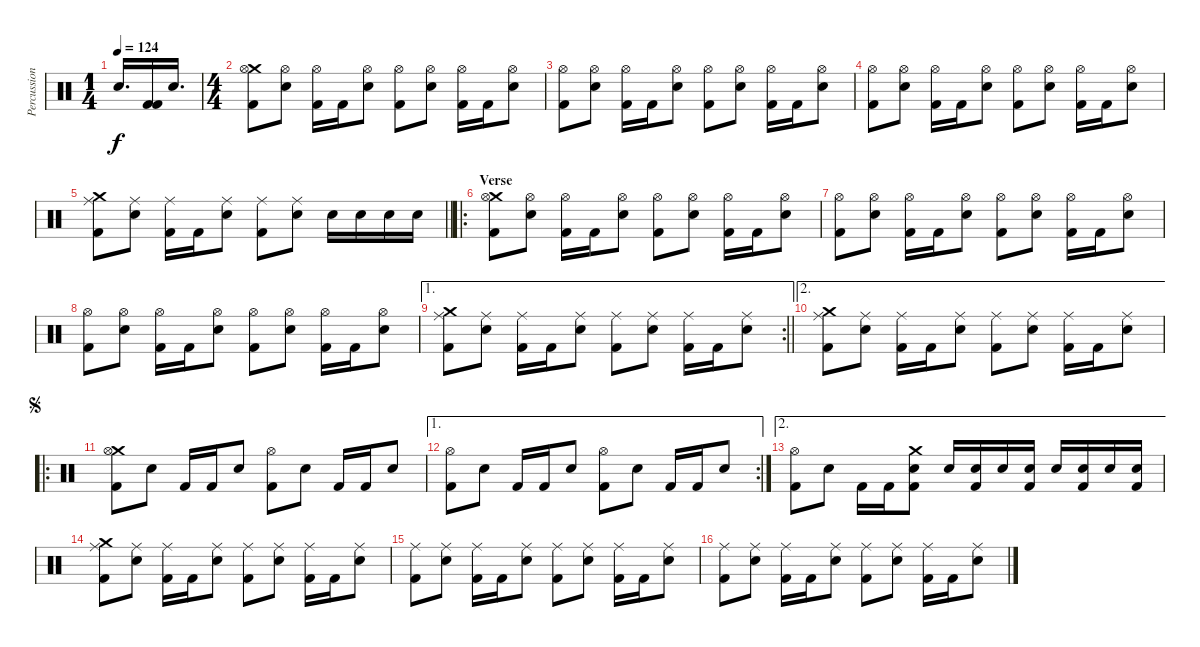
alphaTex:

\track ("Percussion" "Percussion") {instrument percussion}
\staff {score}
\articulation defaults
\ts (1 4)
\tempo 124
\clef neutral
\ks c "Electric Snare (hit)".16{d dy f}
("Kick (hit) 2" "Kick (hit) 2").16 "Electric Snare (hit)".16{d} |
\ts (4 4)
("Crash medium (hit)" "Hi-Hat (open)" "Kick (hit) 2").8 ("Hi-Hat (open)" "Electric Snare (hit)").8 ("Hi-Hat (open)" "Kick (hit) 2").16 "Kick (hit) 2".16 ("Hi-Hat (open)" "Electric Snare (hit)").8 ("Hi-Hat (open)" "Kick (hit) 2").8 ("Hi-Hat (open)" "Electric Snare (hit)").8 ("Hi-Hat (open)" "Kick (hit) 2").16 "Kick (hit) 2".16 ("Hi-Hat (open)" "Electric Snare (hit)").8 |
("Hi-Hat (open)" "Kick (hit) 2").8 ("Hi-Hat (open)" "Electric Snare (hit)").8 ("Hi-Hat (open)" "Kick (hit) 2").16 "Kick (hit) 2".16 ("Hi-Hat (open)" "Electric Snare (hit)").8 ("Hi-Hat (open)" "Kick (hit) 2").8 ("Hi-Hat (open)" "Electric Snare (hit)").8 ("Hi-Hat (open)" "Kick (hit) 2").16 "Kick (hit) 2".16 ("Hi-Hat (open)" "Electric Snare (hit)").8 |
("Hi-Hat (open)" "Kick (hit) 2").8 ("Hi-Hat (open)" "Electric Snare (hit)").8 ("Hi-Hat (open)" "Kick (hit) 2").16 "Kick (hit) 2".16 ("Hi-Hat (open)" "Electric Snare (hit)").8 ("Hi-Hat (open)" "Kick (hit) 2").8 ("Hi-Hat (open)" "Electric Snare (hit)").8 ("Hi-Hat (open)" "Kick (hit) 2").16 "Kick (hit) 2".16 ("Hi-Hat (open)" "Electric Snare (hit)").8 |
\barLineRight lightlight
("Crash medium (hit)" "Ride (middle)" "Kick (hit) 2").8 ("Ride (middle)" "Electric Snare (hit)").8 ("Ride (middle)" "Kick (hit) 2").16 "Kick (hit) 2".16 ("Ride (middle)" "Electric Snare (hit)").8 ("Ride (middle)" "Kick (hit) 2").8 ("Ride (middle)" "Electric Snare (hit)").8 "Electric Snare (hit)".16 "Electric Snare (hit)".16 "Electric Snare (hit)".16 "Electric Snare (hit)".16 |
\ro
\section ("" "Verse")
("Crash medium (hit)" "Hi-Hat (open)" "Kick (hit) 2").8 ("Hi-Hat (open)" "Electric Snare (hit)").8 ("Hi-Hat (open)" "Kick (hit) 2").16 "Kick (hit) 2".16 ("Hi-Hat (open)" "Electric Snare (hit)").8 ("Hi-Hat (open)" "Kick (hit) 2").8 ("Hi-Hat (open)" "Electric Snare (hit)").8 ("Hi-Hat (open)" "Kick (hit) 2").16 "Kick (hit) 2".16 ("Hi-Hat (open)" "Electric Snare (hit)").8 |
("Hi-Hat (open)" "Kick (hit) 2").8 ("Hi-Hat (open)" "Electric Snare (hit)").8 ("Hi-Hat (open)" "Kick (hit) 2").16 "Kick (hit) 2".16 ("Hi-Hat (open)" "Electric Snare (hit)").8 ("Hi-Hat (open)" "Kick (hit) 2").8 ("Hi-Hat (open)" "Electric Snare (hit)").8 ("Hi-Hat (open)" "Kick (hit) 2").16 "Kick (hit) 2".16 ("Hi-Hat (open)" "Electric Snare (hit)").8 |
("Hi-Hat (open)" "Kick (hit) 2").8 ("Hi-Hat (open)" "Electric Snare (hit)").8 ("Hi-Hat (open)" "Kick (hit) 2").16 "Kick (hit) 2".16 ("Hi-Hat (open)" "Electric Snare (hit)").8 ("Hi-Hat (open)" "Kick (hit) 2").8 ("Hi-Hat (open)" "Electric Snare (hit)").8 ("Hi-Hat (open)" "Kick (hit) 2").16 "Kick (hit) 2".16 ("Hi-Hat (open)" "Electric Snare (hit)").8 |
\ae 1
\rc 2
\barLineRight lightlight
("Crash medium (hit)" "Ride (middle)" "Kick (hit) 2").8 ("Ride (middle)" "Electric Snare (hit)").8 ("Ride (middle)" "Kick (hit) 2").16 "Kick (hit) 2".16 ("Ride (middle)" "Electric Snare (hit)").8 ("Ride (middle)" "Kick (hit) 2").8 ("Ride (middle)" "Electric Snare (hit)").8 ("Ride (middle)" "Kick (hit) 2").16 "Kick (hit) 2".16 ("Ride (middle)" "Electric Snare (hit)").8 |
\ae 2
("Crash medium (hit)" "Ride (middle)" "Kick (hit) 2").8 ("Ride (middle)" "Electric Snare (hit)").8 ("Ride (middle)" "Kick (hit) 2").16 "Kick (hit) 2".16 ("Ride (middle)" "Electric Snare (hit)").8 ("Ride (middle)" "Kick (hit) 2").8 ("Ride (middle)" "Electric Snare (hit)").8 ("Ride (middle)" "Kick (hit) 2").16 "Kick (hit) 2".16 ("Ride (middle)" "Electric Snare (hit)").8 |
\ro
\jump segno
("Crash medium (hit)" "Hi-Hat (open)" "Kick (hit) 2").8 "Electric Snare (hit)".8 "Kick (hit) 2".16 "Kick (hit) 2".16 "Electric Snare (hit)".8 ("Hi-Hat (open)" "Kick (hit) 2").8 "Electric Snare (hit)".8 "Kick (hit) 2".16 "Kick (hit) 2".16 "Electric Snare (hit)".8 |
\ae 1
\rc 2
("Hi-Hat (open)" "Kick (hit) 2").8 "Electric Snare (hit)".8 "Kick (hit) 2".16 "Kick (hit) 2".16 "Electric Snare (hit)".8 ("Hi-Hat (open)" "Kick (hit) 2").8 "Electric Snare (hit)".8 "Kick (hit) 2".16 "Kick (hit) 2".16 "Electric Snare (hit)".8 |
\ae 2
("Hi-Hat (open)" "Kick (hit) 2").8 "Electric Snare (hit)".8 "Kick (hit) 2".16 "Kick (hit) 2".16 ("Crash medium (hit)" "Electric Snare (hit)" "Kick (hit) 2").8 "Electric Snare (hit)".16 ("Electric Snare (hit)" "Kick (hit) 2").16 "Electric Snare (hit)".16 ("Electric Snare (hit)" "Kick (hit) 2").16 "Electric Snare (hit)".16 ("Electric Snare (hit)" "Kick (hit) 2").16 "Electric Snare (hit)".16 ("Electric Snare (hit)" "Kick (hit) 2").16 |
("Crash medium (hit)" "Ride (middle)" "Kick (hit) 2").8 ("Ride (middle)" "Electric Snare (hit)").8 ("Ride (middle)" "Kick (hit) 2").16 "Kick (hit) 2".16 ("Ride (middle)" "Electric Snare (hit)").8 ("Ride (middle)" "Kick (hit) 2").8 ("Ride (middle)" "Electric Snare (hit)").8 ("Ride (middle)" "Kick (hit) 2").16 "Kick (hit) 2".16 ("Ride (middle)" "Electric Snare (hit)").8 |
("Ride (middle)" "Kick (hit) 2").8 ("Ride (middle)" "Electric Snare (hit)").8 ("Ride (middle)" "Kick (hit) 2").16 "Kick (hit) 2".16 ("Ride (middle)" "Electric Snare (hit)").8 ("Ride (middle)" "Kick (hit) 2").8 ("Ride (middle)" "Electric Snare (hit)").8 ("Ride (middle)" "Kick (hit) 2").16 "Kick (hit) 2".16 ("Ride (middle)" "Electric Snare (hit)").8 |
("Ride (middle)" "Kick (hit) 2").8 ("Ride (middle)" "Electric Snare (hit)").8 ("Ride (middle)" "Kick (hit) 2").16 "Kick (hit) 2".16 ("Ride (middle)" "Electric Snare (hit)").8 ("Ride (middle)" "Kick (hit) 2").8 ("Ride (middle)" "Electric Snare (hit)").8 ("Ride (middle)" "Kick (hit) 2").16 "Kick (hit) 2".16 ("Ride (middle)" "Electric Snare (hit)").8
